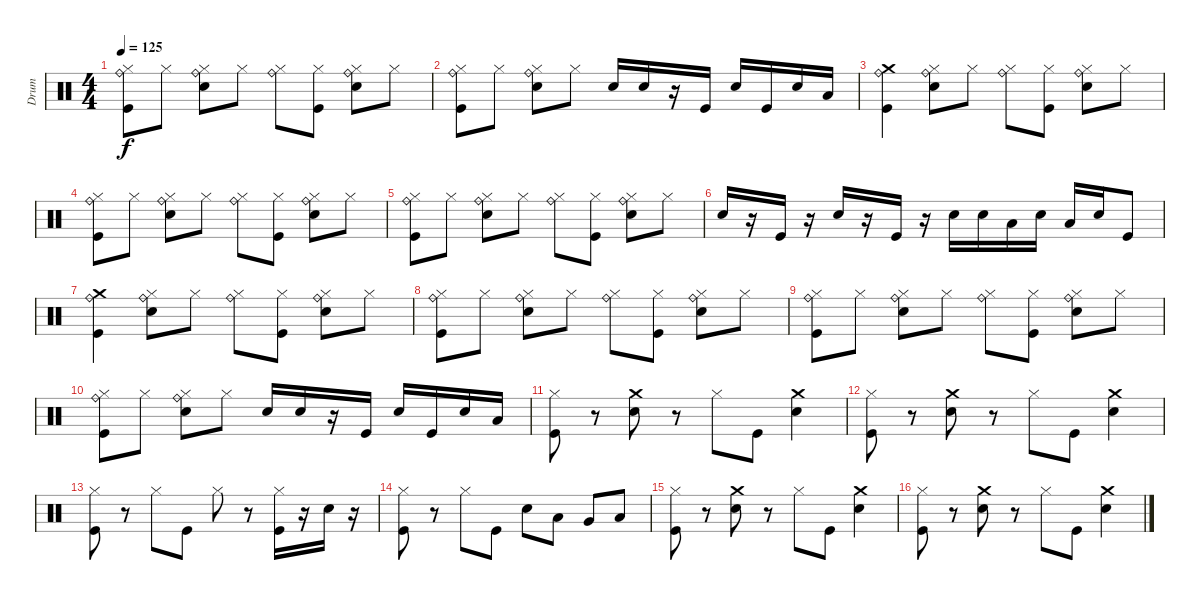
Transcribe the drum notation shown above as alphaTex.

\track ("Drum" "Drum") {instrument percussion}
\staff {score}
\articulation defaults
\ts (4 4)
\tempo 125
\clef neutral
\ks c
("Kick (hit)" "Hi-Hat (closed)" "Ride (bell)").8{dy f} "Hi-Hat (closed)".8 ("Electric Snare (hit)" "Hi-Hat (closed)" "Ride (bell)").8 "Hi-Hat (closed)".8 ("Hi-Hat (closed)" "Ride (bell)").8 ("Kick (hit)" "Hi-Hat (closed)").8 ("Electric Snare (hit)" "Hi-Hat (closed)" "Ride (bell)").8 "Hi-Hat (closed)".8 |
("Kick (hit)" "Hi-Hat (closed)" "Ride (bell)").8 "Hi-Hat (closed)".8 ("Electric Snare (hit)" "Hi-Hat (closed)" "Ride (bell)").8 "Hi-Hat (closed)".8 "Electric Snare (hit)".16 "Electric Snare (hit)".16 r.16 "Kick (hit)".16 "Electric Snare (hit)".16 "Kick (hit)".16 "Electric Snare (hit)".16 "Low Tom (hit)".16 |
("Kick (hit)" "Crash medium (hit)" "Ride (bell)").4 ("Electric Snare (hit)" "Hi-Hat (closed)" "Ride (bell)").8 "Hi-Hat (closed)".8 ("Hi-Hat (closed)" "Ride (bell)").8 ("Kick (hit)" "Hi-Hat (closed)").8 ("Electric Snare (hit)" "Hi-Hat (closed)" "Ride (bell)").8 "Hi-Hat (closed)".8 |
("Kick (hit)" "Hi-Hat (closed)" "Ride (bell)").8 "Hi-Hat (closed)".8 ("Electric Snare (hit)" "Hi-Hat (closed)" "Ride (bell)").8 "Hi-Hat (closed)".8 ("Hi-Hat (closed)" "Ride (bell)").8 ("Kick (hit)" "Hi-Hat (closed)").8 ("Electric Snare (hit)" "Hi-Hat (closed)" "Ride (bell)").8 "Hi-Hat (closed)".8 |
("Kick (hit)" "Hi-Hat (closed)" "Ride (bell)").8 "Hi-Hat (closed)".8 ("Electric Snare (hit)" "Hi-Hat (closed)" "Ride (bell)").8 "Hi-Hat (closed)".8 ("Hi-Hat (closed)" "Ride (bell)").8 ("Kick (hit)" "Hi-Hat (closed)").8 ("Electric Snare (hit)" "Hi-Hat (closed)" "Ride (bell)").8 "Hi-Hat (closed)".8 |
"Electric Snare (hit)".16 r.16 "Kick (hit)".16 r.16 "Electric Snare (hit)".16 r.16 "Kick (hit)".16 r.16 "Electric Snare (hit)".16 "Electric Snare (hit)".16 "Low Tom (hit)".16 "Electric Snare (hit)".16 "Low Tom (hit)".16 "Electric Snare (hit)".16 "Kick (hit)".8 |
("Kick (hit)" "Crash medium (hit)" "Ride (bell)").4 ("Electric Snare (hit)" "Hi-Hat (closed)" "Ride (bell)").8 "Hi-Hat (closed)".8 ("Hi-Hat (closed)" "Ride (bell)").8 ("Kick (hit)" "Hi-Hat (closed)").8 ("Electric Snare (hit)" "Hi-Hat (closed)" "Ride (bell)").8 "Hi-Hat (closed)".8 |
("Kick (hit)" "Hi-Hat (closed)" "Ride (bell)").8 "Hi-Hat (closed)".8 ("Electric Snare (hit)" "Hi-Hat (closed)" "Ride (bell)").8 "Hi-Hat (closed)".8 ("Hi-Hat (closed)" "Ride (bell)").8 ("Kick (hit)" "Hi-Hat (closed)").8 ("Electric Snare (hit)" "Hi-Hat (closed)" "Ride (bell)").8 "Hi-Hat (closed)".8 |
("Kick (hit)" "Hi-Hat (closed)" "Ride (bell)").8 "Hi-Hat (closed)".8 ("Electric Snare (hit)" "Hi-Hat (closed)" "Ride (bell)").8 "Hi-Hat (closed)".8 ("Hi-Hat (closed)" "Ride (bell)").8 ("Kick (hit)" "Hi-Hat (closed)").8 ("Electric Snare (hit)" "Hi-Hat (closed)" "Ride (bell)").8 "Hi-Hat (closed)".8 |
("Kick (hit)" "Hi-Hat (closed)" "Ride (bell)").8 "Hi-Hat (closed)".8 ("Electric Snare (hit)" "Hi-Hat (closed)" "Ride (bell)").8 "Hi-Hat (closed)".8 "Electric Snare (hit)".16 "Electric Snare (hit)".16 r.16 "Kick (hit)".16 "Electric Snare (hit)".16 "Kick (hit)".16 "Electric Snare (hit)".16 "Low Tom (hit)".16 |
("Kick (hit)" "Hi-Hat (closed)").8 r.8 ("Electric Snare (hit)" "Crash medium (hit)").8 r.8 "Hi-Hat (closed)".8 "Kick (hit)".8 ("Electric Snare (hit)" "Crash medium (hit)").4 |
("Kick (hit)" "Hi-Hat (closed)").8 r.8 ("Electric Snare (hit)" "Crash medium (hit)").8 r.8 "Hi-Hat (closed)".8 "Kick (hit)".8 ("Electric Snare (hit)" "Crash medium (hit)").4 |
("Kick (hit)" "Hi-Hat (closed)").8 r.8 "Hi-Hat (closed)".8 "Kick (hit)".8 "Hi-Hat (closed)".8 r.8 ("Kick (hit)" "Hi-Hat (closed)").16 r.16 "Electric Snare (hit)".16 r.16 |
("Kick (hit)" "Hi-Hat (closed)").8 r.8 "Hi-Hat (closed)".8 "Kick (hit)".8 "Electric Snare (hit)".8 "Low Tom (hit)".8 "Very Low Tom (hit)".8 "Low Floor Tom (hit)".8 |
("Kick (hit)" "Hi-Hat (closed)").8 r.8 ("Electric Snare (hit)" "Crash medium (hit)").8 r.8 "Hi-Hat (closed)".8 "Kick (hit)".8 ("Electric Snare (hit)" "Crash medium (hit)").4 |
("Kick (hit)" "Hi-Hat (closed)").8 r.8 ("Electric Snare (hit)" "Crash medium (hit)").8 r.8 "Hi-Hat (closed)".8 "Kick (hit)".8 ("Electric Snare (hit)" "Crash medium (hit)").4
